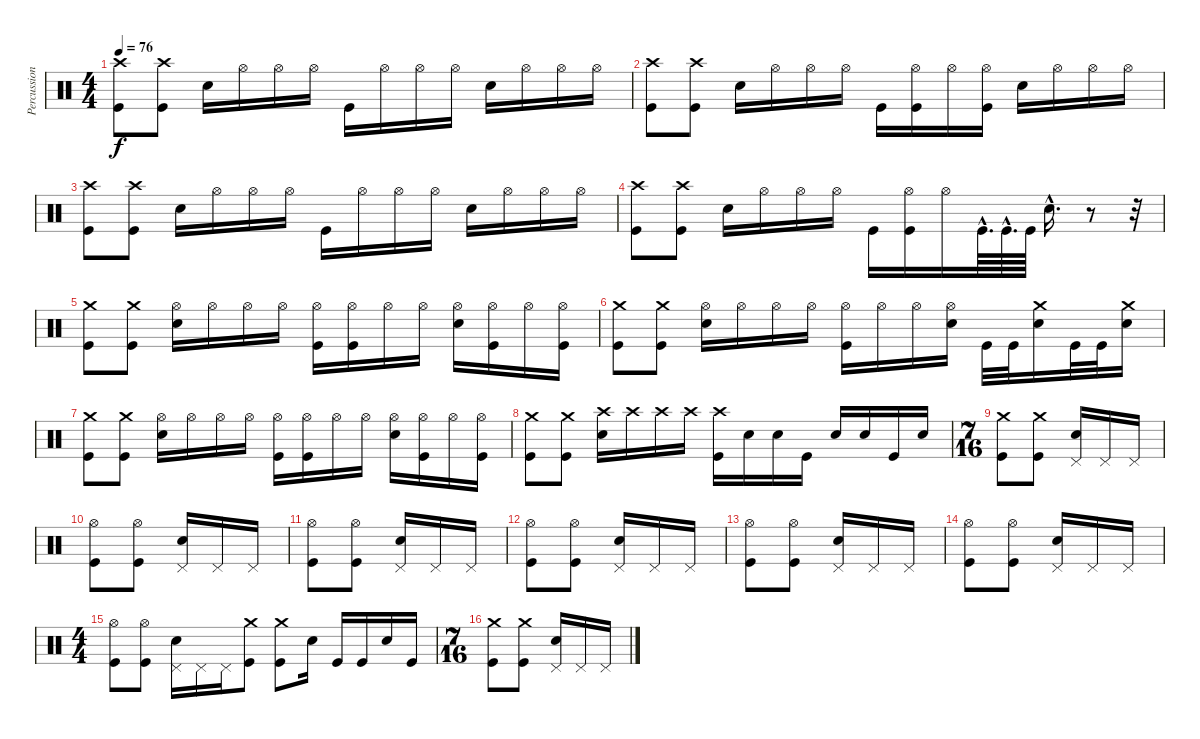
\track ("Percussion" "Percussion") {instrument percussion}
\staff {score}
\articulation defaults
\ts (4 4)
\tempo 76
\clef neutral
\ks c
("Crash high (hit)" "Kick (hit)").8{dy f} ("Crash high (hit)" "Kick (hit)").8 "Snare (hit) 2".16 "Hi-Hat (open)".16 "Hi-Hat (open)".16 "Hi-Hat (open)".16 "Kick (hit)".16 "Hi-Hat (open)".16 "Hi-Hat (open)".16 "Hi-Hat (open)".16 "Snare (hit) 2".16 "Hi-Hat (open)".16 "Hi-Hat (open)".16 "Hi-Hat (open)".16 |
("Crash high (hit)" "Kick (hit)").8 ("Crash high (hit)" "Kick (hit)").8 "Snare (hit) 2".16 "Hi-Hat (open)".16 "Hi-Hat (open)".16 "Hi-Hat (open)".16 "Kick (hit)".16 ("Kick (hit)" "Hi-Hat (open)").16 "Hi-Hat (open)".16 ("Kick (hit)" "Hi-Hat (open)").16 "Snare (hit) 2".16 "Hi-Hat (open)".16 "Hi-Hat (open)".16 "Hi-Hat (open)".16 |
("Crash high (hit)" "Kick (hit)").8 ("Crash high (hit)" "Kick (hit)").8 "Snare (hit) 2".16 "Hi-Hat (open)".16 "Hi-Hat (open)".16 "Hi-Hat (open)".16 "Kick (hit)".16 "Hi-Hat (open)".16 "Hi-Hat (open)".16 "Hi-Hat (open)".16 "Snare (hit) 2".16 "Hi-Hat (open)".16 "Hi-Hat (open)".16 "Hi-Hat (open)".16 |
("Crash high (hit)" "Kick (hit)").8 ("Crash high (hit)" "Kick (hit)").8 "Snare (hit) 2".16 "Hi-Hat (open)".16 "Hi-Hat (open)".16 "Hi-Hat (open)".16 "Kick (hit)".16 ("Kick (hit)" "Hi-Hat (open)").16 "Hi-Hat (open)".16 "Kick (hit)"{hac}.64{d} "Kick (hit)"{hac}.64{d} "Kick (hit)".64 "Snare (hit) 2"{hac}.16{d} r.8 r.32 |
("Crash medium (hit)" "Kick (hit)").8 ("Crash medium (hit)" "Kick (hit)").8 ("Hi-Hat (open)" "Snare (hit) 2").16 "Hi-Hat (open)".16 "Hi-Hat (open)".16 "Hi-Hat (open)".16 ("Hi-Hat (open)" "Kick (hit)").16 ("Hi-Hat (open)" "Kick (hit)").16 "Hi-Hat (open)".16 "Hi-Hat (open)".16 ("Hi-Hat (open)" "Snare (hit) 2").16 ("Hi-Hat (open)" "Kick (hit)").16 "Hi-Hat (open)".16 ("Hi-Hat (open)" "Kick (hit)").16 |
("Crash medium (hit)" "Kick (hit)").8 ("Crash medium (hit)" "Kick (hit)").8 ("Hi-Hat (open)" "Snare (hit) 2").16 "Hi-Hat (open)".16 "Hi-Hat (open)".16 "Hi-Hat (open)".16 ("Hi-Hat (open)" "Kick (hit)").16 "Hi-Hat (open)".16 "Hi-Hat (open)".16 ("Hi-Hat (open)" "Snare (hit) 2").16 "Kick (hit)".32 "Kick (hit)".32 ("Crash medium (hit)" "Snare (hit) 2").16 "Kick (hit)".32 "Kick (hit)".32 ("Crash medium (hit)" "Snare (hit) 2").16 |
("Crash medium (hit)" "Kick (hit)").8 ("Crash medium (hit)" "Kick (hit)").8 ("Hi-Hat (open)" "Snare (hit) 2").16 "Hi-Hat (open)".16 "Hi-Hat (open)".16 "Hi-Hat (open)".16 ("Hi-Hat (open)" "Kick (hit)").16 ("Hi-Hat (open)" "Kick (hit)").16 "Hi-Hat (open)".16 "Hi-Hat (open)".16 ("Hi-Hat (open)" "Snare (hit) 2").16 ("Hi-Hat (open)" "Kick (hit)").16 "Hi-Hat (open)".16 ("Hi-Hat (open)" "Kick (hit)").16 |
("Crash medium (hit)" "Kick (hit)").8 ("Crash medium (hit)" "Kick (hit)").8 ("Crash high (hit)" "Snare (hit) 2").16 "Crash high (hit)".16 "Crash high (hit)".16 "Crash high (hit)".16 ("Crash high (hit)" "Kick (hit)").16 "Snare (hit) 2".16 "Snare (hit) 2".16 "Kick (hit)".16 "Snare (hit) 2".16 "Snare (hit) 2".16 "Kick (hit)".16 "Snare (hit) 2".16 |
\ts (7 16)
("Crash medium (hit)" "Kick (hit)").8 ("Crash medium (hit)" "Kick (hit)").8 ("Pedal Hi-Hat (hit)" "Snare (hit) 2").16 "Pedal Hi-Hat (hit)".16 "Pedal Hi-Hat (hit)".16 |
("Hi-Hat (open)" "Kick (hit)").8 ("Hi-Hat (open)" "Kick (hit)").8 ("Pedal Hi-Hat (hit)" "Snare (hit) 2").16 "Pedal Hi-Hat (hit)".16 "Pedal Hi-Hat (hit)".16 |
("Hi-Hat (open)" "Kick (hit)").8 ("Hi-Hat (open)" "Kick (hit)").8 ("Pedal Hi-Hat (hit)" "Snare (hit) 2").16 "Pedal Hi-Hat (hit)".16 "Pedal Hi-Hat (hit)".16 |
("Hi-Hat (open)" "Kick (hit)").8 ("Hi-Hat (open)" "Kick (hit)").8 ("Pedal Hi-Hat (hit)" "Snare (hit) 2").16 "Pedal Hi-Hat (hit)".16 "Pedal Hi-Hat (hit)".16 |
("Hi-Hat (open)" "Kick (hit)").8 ("Hi-Hat (open)" "Kick (hit)").8 ("Pedal Hi-Hat (hit)" "Snare (hit) 2").16 "Pedal Hi-Hat (hit)".16 "Pedal Hi-Hat (hit)".16 |
("Hi-Hat (open)" "Kick (hit)").8 ("Hi-Hat (open)" "Kick (hit)").8 ("Pedal Hi-Hat (hit)" "Snare (hit) 2").16 "Pedal Hi-Hat (hit)".16 "Pedal Hi-Hat (hit)".16 |
\ts (4 4)
("Hi-Hat (open)" "Kick (hit)").8 ("Hi-Hat (open)" "Kick (hit)").8 ("Pedal Hi-Hat (hit)" "Snare (hit) 2").16 "Pedal Hi-Hat (hit)".16 "Pedal Hi-Hat (hit)".16 ("Crash medium (hit)" "Kick (hit)").8 ("Crash medium (hit)" "Kick (hit)").8 "Snare (hit) 2".16 "Kick (hit)".16 "Kick (hit)".16 "Snare (hit) 2".16 "Kick (hit)".16 |
\ts (7 16)
("Crash medium (hit)" "Kick (hit)").8 ("Crash medium (hit)" "Kick (hit)").8 ("Pedal Hi-Hat (hit)" "Snare (hit) 2").16 "Pedal Hi-Hat (hit)".16 "Pedal Hi-Hat (hit)".16
